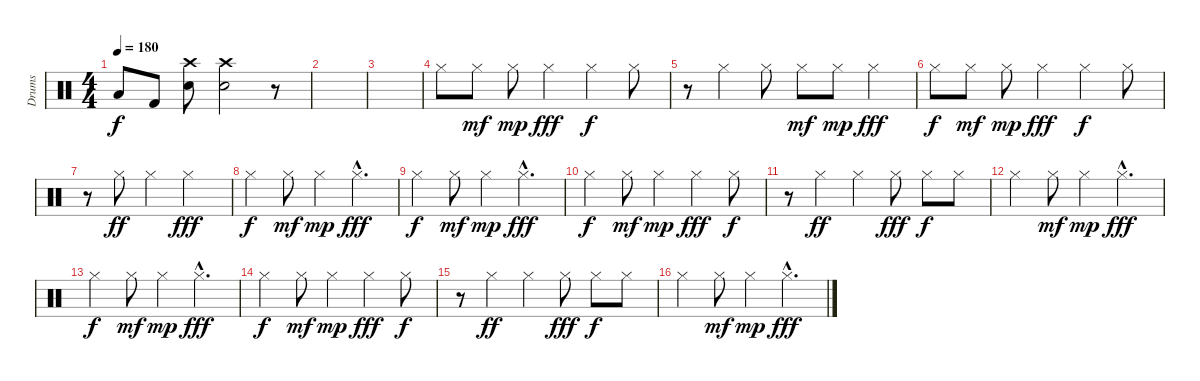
\track ("Drums" "Drums") {instrument percussion}
\staff {score}
\articulation defaults
\ts (4 4)
\tempo 180
\clef neutral
\ks c "Low Tom (hit)".8{dy f} "Kick (hit) 2".8
("Crash high (hit)" "Snare (hit) 2").8 ("Crash high (hit)" "Snare (hit) 2").2 r.8 |
|
|
"Hi-Hat (closed)".8 "Hi-Hat (closed)".8{dy mf} "Hi-Hat (closed)".8{dy mp} "Hi-Hat (closed)".4{dy fff} "Hi-Hat (closed)".4{dy f} "Hi-Hat (closed)".8 |
r.8 "Hi-Hat (closed)".4 "Hi-Hat (closed)".8 "Hi-Hat (closed)".8{dy mf} "Hi-Hat (closed)".8{dy mp} "Hi-Hat (closed)".4{dy fff} |
"Hi-Hat (closed)".8{dy f} "Hi-Hat (closed)".8{dy mf} "Hi-Hat (closed)".8{dy mp} "Hi-Hat (closed)".4{dy fff} "Hi-Hat (closed)".4{dy f} "Hi-Hat (closed)".8 |
r.8 "Hi-Hat (closed)".8{dy ff} "Hi-Hat (closed)".4 "Hi-Hat (closed)".2{dy fff} |
"Hi-Hat (closed)".4{dy f} "Hi-Hat (closed)".8{dy mf} "Hi-Hat (closed)".4{dy mp} "Hi-Hat (closed)"{hac}.4{d dy fff} |
"Hi-Hat (closed)".4{dy f} "Hi-Hat (closed)".8{dy mf} "Hi-Hat (closed)".4{dy mp} "Hi-Hat (closed)"{hac}.4{d dy fff} |
"Hi-Hat (closed)".4{dy f} "Hi-Hat (closed)".8{dy mf} "Hi-Hat (closed)".4{dy mp} "Hi-Hat (closed)".4{dy fff} "Hi-Hat (closed)".8{dy f} |
r.8 "Hi-Hat (closed)".4{dy ff} "Hi-Hat (closed)".4 "Hi-Hat (closed)".8{dy fff} "Hi-Hat (closed)".8{dy f} "Hi-Hat (closed)".8 |
"Hi-Hat (closed)".4 "Hi-Hat (closed)".8{dy mf} "Hi-Hat (closed)".4{dy mp} "Hi-Hat (closed)"{hac}.4{d dy fff} |
"Hi-Hat (closed)".4{dy f} "Hi-Hat (closed)".8{dy mf} "Hi-Hat (closed)".4{dy mp} "Hi-Hat (closed)"{hac}.4{d dy fff} |
"Hi-Hat (closed)".4{dy f} "Hi-Hat (closed)".8{dy mf} "Hi-Hat (closed)".4{dy mp} "Hi-Hat (closed)".4{dy fff} "Hi-Hat (closed)".8{dy f} |
r.8 "Hi-Hat (closed)".4{dy ff} "Hi-Hat (closed)".4 "Hi-Hat (closed)".8{dy fff} "Hi-Hat (closed)".8{dy f} "Hi-Hat (closed)".8 |
"Hi-Hat (closed)".4 "Hi-Hat (closed)".8{dy mf} "Hi-Hat (closed)".4{dy mp} "Hi-Hat (closed)"{hac}.4{d dy fff}
